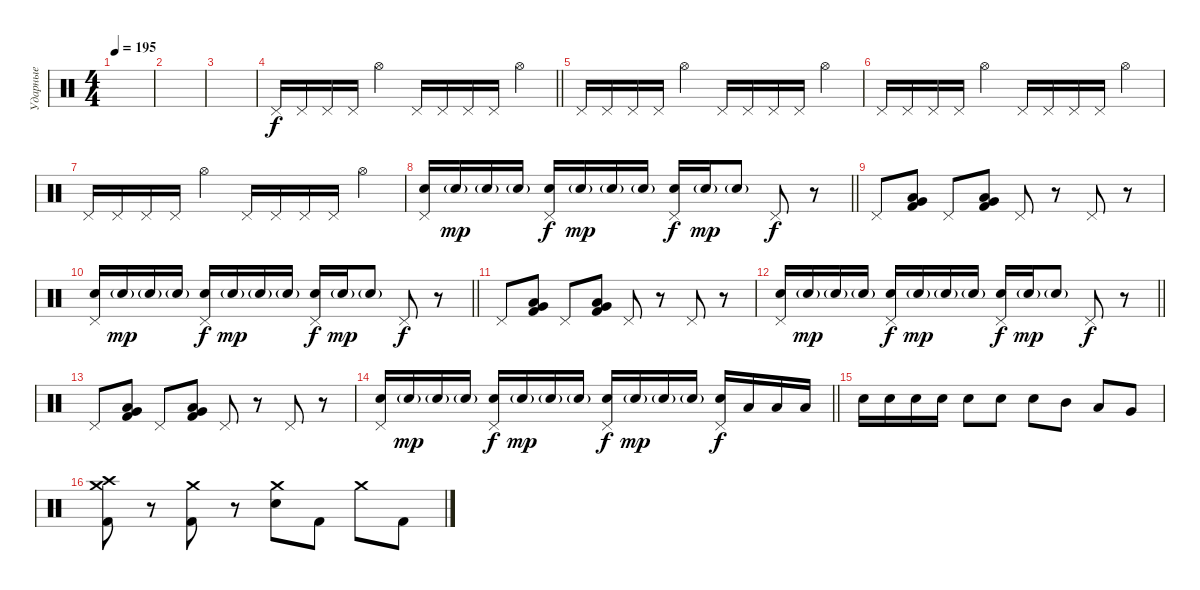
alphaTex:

\track ("Ударные" "Ударные") {instrument percussion}
\staff {score}
\articulation defaults
\ts (4 4)
\tempo 195
\clef neutral
\ks c
|
|
|
\barLineRight lightlight "Pedal Hi-Hat (hit)".16 "Pedal Hi-Hat (hit)".16 "Pedal Hi-Hat (hit)".16 "Pedal Hi-Hat (hit)".16 "Hi-Hat (open)".4 "Pedal Hi-Hat (hit)".16 "Pedal Hi-Hat (hit)".16 "Pedal Hi-Hat (hit)".16 "Pedal Hi-Hat (hit)".16 "Hi-Hat (open)".4
|
"Pedal Hi-Hat (hit)".16 "Pedal Hi-Hat (hit)".16 "Pedal Hi-Hat (hit)".16 "Pedal Hi-Hat (hit)".16 "Hi-Hat (open)".4 "Pedal Hi-Hat (hit)".16 "Pedal Hi-Hat (hit)".16 "Pedal Hi-Hat (hit)".16 "Pedal Hi-Hat (hit)".16 "Hi-Hat (open)".4 |
"Pedal Hi-Hat (hit)".16 "Pedal Hi-Hat (hit)".16 "Pedal Hi-Hat (hit)".16 "Pedal Hi-Hat (hit)".16 "Hi-Hat (open)".4 "Pedal Hi-Hat (hit)".16 "Pedal Hi-Hat (hit)".16 "Pedal Hi-Hat (hit)".16 "Pedal Hi-Hat (hit)".16 "Hi-Hat (open)".4 |
"Pedal Hi-Hat (hit)".16 "Pedal Hi-Hat (hit)".16 "Pedal Hi-Hat (hit)".16 "Pedal Hi-Hat (hit)".16 "Hi-Hat (open)".4 "Pedal Hi-Hat (hit)".16 "Pedal Hi-Hat (hit)".16 "Pedal Hi-Hat (hit)".16 "Pedal Hi-Hat (hit)".16 "Hi-Hat (open)".4 |
\barLineRight lightlight
("Pedal Hi-Hat (hit)" "Electric Snare (hit)").16 "Electric Snare (hit)"{g}.16{dy mp} "Electric Snare (hit)"{g}.16 "Electric Snare (hit)"{g}.16 ("Pedal Hi-Hat (hit)" "Electric Snare (hit)").16{dy f} "Electric Snare (hit)"{g}.16{dy mp} "Electric Snare (hit)"{g}.16 "Electric Snare (hit)"{g}.16 ("Pedal Hi-Hat (hit)" "Electric Snare (hit)").16{dy f} "Electric Snare (hit)"{g}.16{dy mp} "Electric Snare (hit)"{g}.8 "Pedal Hi-Hat (hit)".8{dy f} r.8 |
"Pedal Hi-Hat (hit)".8 ("Low Tom (hit)" "Very Low Tom (hit)" "Kick (hit) 2").8 "Pedal Hi-Hat (hit)".8 ("Low Tom (hit)" "Very Low Tom (hit)" "Kick (hit) 2").8 "Pedal Hi-Hat (hit)".8 r.8 "Pedal Hi-Hat (hit)".8 r.8 |
\barLineRight lightlight
("Pedal Hi-Hat (hit)" "Electric Snare (hit)").16 "Electric Snare (hit)"{g}.16{dy mp} "Electric Snare (hit)"{g}.16 "Electric Snare (hit)"{g}.16 ("Pedal Hi-Hat (hit)" "Electric Snare (hit)").16{dy f} "Electric Snare (hit)"{g}.16{dy mp} "Electric Snare (hit)"{g}.16 "Electric Snare (hit)"{g}.16 ("Pedal Hi-Hat (hit)" "Electric Snare (hit)").16{dy f} "Electric Snare (hit)"{g}.16{dy mp} "Electric Snare (hit)"{g}.8 "Pedal Hi-Hat (hit)".8{dy f} r.8 |
"Pedal Hi-Hat (hit)".8 ("Low Tom (hit)" "Very Low Tom (hit)" "Kick (hit) 2").8 "Pedal Hi-Hat (hit)".8 ("Low Tom (hit)" "Very Low Tom (hit)" "Kick (hit) 2").8 "Pedal Hi-Hat (hit)".8 r.8 "Pedal Hi-Hat (hit)".8 r.8 |
\barLineRight lightlight
("Pedal Hi-Hat (hit)" "Electric Snare (hit)").16 "Electric Snare (hit)"{g}.16{dy mp} "Electric Snare (hit)"{g}.16 "Electric Snare (hit)"{g}.16 ("Pedal Hi-Hat (hit)" "Electric Snare (hit)").16{dy f} "Electric Snare (hit)"{g}.16{dy mp} "Electric Snare (hit)"{g}.16 "Electric Snare (hit)"{g}.16 ("Pedal Hi-Hat (hit)" "Electric Snare (hit)").16{dy f} "Electric Snare (hit)"{g}.16{dy mp} "Electric Snare (hit)"{g}.8 "Pedal Hi-Hat (hit)".8{dy f} r.8 |
"Pedal Hi-Hat (hit)".8 ("Low Tom (hit)" "Very Low Tom (hit)" "Kick (hit) 2").8 "Pedal Hi-Hat (hit)".8 ("Low Tom (hit)" "Very Low Tom (hit)" "Kick (hit) 2").8 "Pedal Hi-Hat (hit)".8 r.8 "Pedal Hi-Hat (hit)".8 r.8 |
\barLineRight lightlight
("Pedal Hi-Hat (hit)" "Electric Snare (hit)").16 "Electric Snare (hit)"{g}.16{dy mp} "Electric Snare (hit)"{g}.16 "Electric Snare (hit)"{g}.16 ("Pedal Hi-Hat (hit)" "Electric Snare (hit)").16{dy f} "Electric Snare (hit)"{g}.16{dy mp} "Electric Snare (hit)"{g}.16 "Electric Snare (hit)"{g}.16 ("Pedal Hi-Hat (hit)" "Electric Snare (hit)").16{dy f} "Electric Snare (hit)"{g}.16{dy mp} "Electric Snare (hit)"{g}.16 "Electric Snare (hit)"{g}.16 ("Pedal Hi-Hat (hit)" "Electric Snare (hit)").16{dy f} "Low Tom (hit)".16 "Low Tom (hit)".16 "Low Floor Tom (hit)".16 |
"Electric Snare (hit)".16 "Electric Snare (hit)".16 "Electric Snare (hit)".16 "Electric Snare (hit)".16 "Electric Snare (hit)".8 "Electric Snare (hit)".8 "Electric Snare (hit)".8 "Mid Tom (hit)".8 "Low Tom (hit)".8 "Very Low Tom (hit)".8 |
("Crash medium (hit)" "Crash high (hit)" "Kick (hit) 2").8 r.8 ("Crash medium (hit)" "Kick (hit) 2").8 r.8 ("Crash medium (hit)" "Electric Snare (hit)").8 "Kick (hit) 2".8 "Crash medium (hit)".8 "Kick (hit) 2".8
